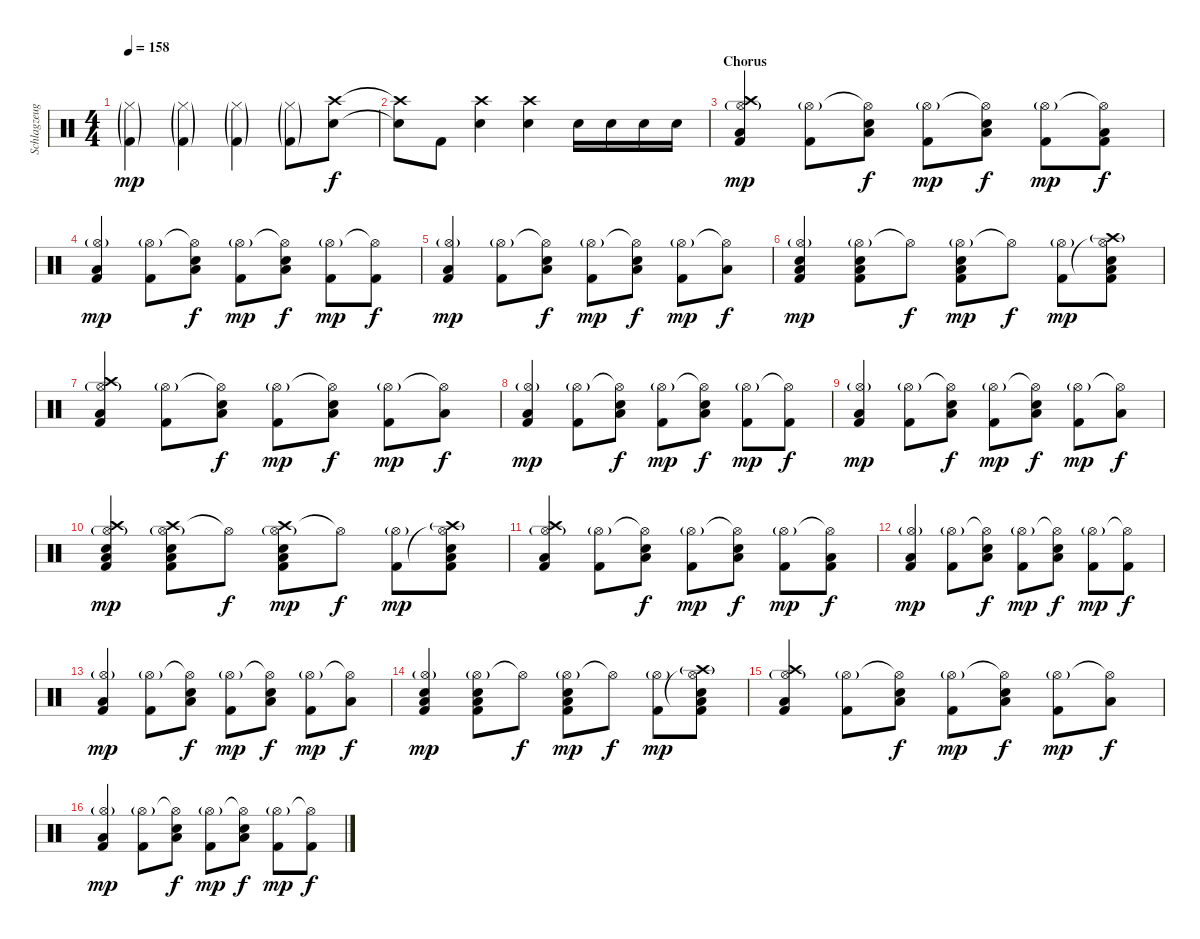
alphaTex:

\track ("Schlagzeug" "Schlagzeug") {instrument percussion}
\staff {score}
\articulation defaults
\ts (4 4)
\tempo 158
\clef neutral
\ks c
("Hi-Hat (closed)"{g} "Kick (hit) 2"{g}).4{dy mp} ("Hi-Hat (closed)"{g} "Kick (hit) 2"{g}).4 ("Hi-Hat (closed)"{g} "Kick (hit) 2"{g}).4 ("Hi-Hat (closed)"{g} "Kick (hit) 2"{g}).8 ("Crash high (hit)" "Snare (hit) 2").8{dy f} |
("Crash high (hit)"{t} "Snare (hit) 2"{t}).8 "Kick (hit) 2".8 ("Crash high (hit)" "Snare (hit) 2").4 ("Crash high (hit)" "Snare (hit) 2").4 "Snare (hit) 2".16 "Snare (hit) 2".16 "Snare (hit) 2".16 "Snare (hit) 2".16 |
\section ("" "Chorus")
("Crash high (hit)" "Hi-Hat (open)"{g} "Low Floor Tom (hit)" "Kick (hit) 2").4{dy mp} ("Hi-Hat (open)"{g} "Kick (hit) 2").8 ("Hi-Hat (open)"{t} "Low Floor Tom (hit)" "Electric Snare (hit)").8{dy f} ("Hi-Hat (open)"{g} "Kick (hit) 2").8{dy mp} ("Hi-Hat (open)"{t} "Low Floor Tom (hit)" "Electric Snare (hit)").8{dy f} ("Hi-Hat (open)"{g} "Kick (hit) 2").8{dy mp} ("Hi-Hat (open)"{t} "Low Floor Tom (hit)" "Kick (hit) 2").8{dy f} |
("Hi-Hat (open)"{g} "Low Floor Tom (hit)" "Kick (hit) 2").4{dy mp} ("Hi-Hat (open)"{g} "Kick (hit) 2").8 ("Hi-Hat (open)"{t} "Low Floor Tom (hit)" "Electric Snare (hit)").8{dy f} ("Hi-Hat (open)"{g} "Kick (hit) 2").8{dy mp} ("Hi-Hat (open)"{t} "Low Floor Tom (hit)" "Electric Snare (hit)").8{dy f} ("Hi-Hat (open)"{g} "Kick (hit) 2").8{dy mp} ("Hi-Hat (open)"{t} "Kick (hit) 2").8{dy f} |
("Hi-Hat (open)"{g} "Low Floor Tom (hit)" "Kick (hit) 2").4{dy mp} ("Hi-Hat (open)"{g} "Kick (hit) 2").8 ("Hi-Hat (open)"{t} "Low Floor Tom (hit)" "Electric Snare (hit)").8{dy f} ("Hi-Hat (open)"{g} "Kick (hit) 2").8{dy mp} ("Hi-Hat (open)"{t} "Low Floor Tom (hit)" "Electric Snare (hit)").8{dy f} ("Hi-Hat (open)"{g} "Kick (hit) 2").8{dy mp} ("Hi-Hat (open)"{t} "Low Floor Tom (hit)").8{dy f} |
("Hi-Hat (open)"{g} "Low Floor Tom (hit)" "Electric Snare (hit)" "Kick (hit) 2").4{dy mp} ("Hi-Hat (open)"{g} "Low Floor Tom (hit)" "Electric Snare (hit)" "Kick (hit) 2").8 "Hi-Hat (open)"{t}.8{dy f} ("Hi-Hat (open)"{g} "Low Floor Tom (hit)" "Electric Snare (hit)" "Kick (hit) 2").8{dy mp} "Hi-Hat (open)"{t}.8{dy f} ("Hi-Hat (open)"{g} "Kick (hit) 2").8{dy mp} ("Crash high (hit)"{g} "Hi-Hat (open)"{t} "Low Floor Tom (hit)" "Electric Snare (hit)" "Kick (hit) 2").8 |
("Crash high (hit)" "Hi-Hat (open)"{g} "Low Floor Tom (hit)" "Kick (hit) 2").4 ("Hi-Hat (open)"{g} "Kick (hit) 2").8 ("Hi-Hat (open)"{t} "Low Floor Tom (hit)" "Electric Snare (hit)").8{dy f} ("Hi-Hat (open)"{g} "Kick (hit) 2").8{dy mp} ("Hi-Hat (open)"{t} "Low Floor Tom (hit)" "Electric Snare (hit)").8{dy f} ("Hi-Hat (open)"{g} "Kick (hit) 2").8{dy mp} ("Hi-Hat (open)"{t} "Low Floor Tom (hit)").8{dy f} |
("Hi-Hat (open)"{g} "Low Floor Tom (hit)" "Kick (hit) 2").4{dy mp} ("Hi-Hat (open)"{g} "Kick (hit) 2").8 ("Hi-Hat (open)"{t} "Low Floor Tom (hit)" "Electric Snare (hit)").8{dy f} ("Hi-Hat (open)"{g} "Kick (hit) 2").8{dy mp} ("Hi-Hat (open)"{t} "Low Floor Tom (hit)" "Electric Snare (hit)").8{dy f} ("Hi-Hat (open)"{g} "Kick (hit) 2").8{dy mp} ("Hi-Hat (open)"{t} "Kick (hit) 2").8{dy f} |
("Hi-Hat (open)"{g} "Low Floor Tom (hit)" "Kick (hit) 2").4{dy mp} ("Hi-Hat (open)"{g} "Kick (hit) 2").8 ("Hi-Hat (open)"{t} "Low Floor Tom (hit)" "Electric Snare (hit)").8{dy f} ("Hi-Hat (open)"{g} "Kick (hit) 2").8{dy mp} ("Hi-Hat (open)"{t} "Low Floor Tom (hit)" "Electric Snare (hit)").8{dy f} ("Hi-Hat (open)"{g} "Kick (hit) 2").8{dy mp} ("Hi-Hat (open)"{t} "Low Floor Tom (hit)").8{dy f} |
("Crash high (hit)" "Hi-Hat (open)"{g} "Low Floor Tom (hit)" "Electric Snare (hit)" "Kick (hit) 2").4{dy mp} ("Crash high (hit)" "Hi-Hat (open)"{g} "Low Floor Tom (hit)" "Electric Snare (hit)" "Kick (hit) 2").8 "Hi-Hat (open)"{t}.8{dy f} ("Crash high (hit)" "Hi-Hat (open)"{g} "Low Floor Tom (hit)" "Electric Snare (hit)" "Kick (hit) 2").8{dy mp} "Hi-Hat (open)"{t}.8{dy f} ("Hi-Hat (open)"{g} "Kick (hit) 2").8{dy mp} ("Crash high (hit)"{g} "Hi-Hat (open)"{t} "Low Floor Tom (hit)" "Electric Snare (hit)" "Kick (hit) 2").8 |
("Crash high (hit)" "Hi-Hat (open)"{g} "Low Floor Tom (hit)" "Kick (hit) 2").4 ("Hi-Hat (open)"{g} "Kick (hit) 2").8 ("Hi-Hat (open)"{t} "Low Floor Tom (hit)" "Electric Snare (hit)").8{dy f} ("Hi-Hat (open)"{g} "Kick (hit) 2").8{dy mp} ("Hi-Hat (open)"{t} "Low Floor Tom (hit)" "Electric Snare (hit)").8{dy f} ("Hi-Hat (open)"{g} "Kick (hit) 2").8{dy mp} ("Hi-Hat (open)"{t} "Low Floor Tom (hit)" "Kick (hit) 2").8{dy f} |
("Hi-Hat (open)"{g} "Low Floor Tom (hit)" "Kick (hit) 2").4{dy mp} ("Hi-Hat (open)"{g} "Kick (hit) 2").8 ("Hi-Hat (open)"{t} "Low Floor Tom (hit)" "Electric Snare (hit)").8{dy f} ("Hi-Hat (open)"{g} "Kick (hit) 2").8{dy mp} ("Hi-Hat (open)"{t} "Low Floor Tom (hit)" "Electric Snare (hit)").8{dy f} ("Hi-Hat (open)"{g} "Kick (hit) 2").8{dy mp} ("Hi-Hat (open)"{t} "Kick (hit) 2").8{dy f} |
("Hi-Hat (open)"{g} "Low Floor Tom (hit)" "Kick (hit) 2").4{dy mp} ("Hi-Hat (open)"{g} "Kick (hit) 2").8 ("Hi-Hat (open)"{t} "Low Floor Tom (hit)" "Electric Snare (hit)").8{dy f} ("Hi-Hat (open)"{g} "Kick (hit) 2").8{dy mp} ("Hi-Hat (open)"{t} "Low Floor Tom (hit)" "Electric Snare (hit)").8{dy f} ("Hi-Hat (open)"{g} "Kick (hit) 2").8{dy mp} ("Hi-Hat (open)"{t} "Low Floor Tom (hit)").8{dy f} |
("Hi-Hat (open)"{g} "Low Floor Tom (hit)" "Electric Snare (hit)" "Kick (hit) 2").4{dy mp} ("Hi-Hat (open)"{g} "Low Floor Tom (hit)" "Electric Snare (hit)" "Kick (hit) 2").8 "Hi-Hat (open)"{t}.8{dy f} ("Hi-Hat (open)"{g} "Low Floor Tom (hit)" "Electric Snare (hit)" "Kick (hit) 2").8{dy mp} "Hi-Hat (open)"{t}.8{dy f} ("Hi-Hat (open)"{g} "Kick (hit) 2").8{dy mp} ("Crash high (hit)"{g} "Hi-Hat (open)"{t} "Low Floor Tom (hit)" "Electric Snare (hit)" "Kick (hit) 2").8 |
("Crash high (hit)" "Hi-Hat (open)"{g} "Low Floor Tom (hit)" "Kick (hit) 2").4 ("Hi-Hat (open)"{g} "Kick (hit) 2").8 ("Hi-Hat (open)"{t} "Low Floor Tom (hit)" "Electric Snare (hit)").8{dy f} ("Hi-Hat (open)"{g} "Kick (hit) 2").8{dy mp} ("Hi-Hat (open)"{t} "Low Floor Tom (hit)" "Electric Snare (hit)").8{dy f} ("Hi-Hat (open)"{g} "Kick (hit) 2").8{dy mp} ("Hi-Hat (open)"{t} "Low Floor Tom (hit)").8{dy f} |
("Hi-Hat (open)"{g} "Low Floor Tom (hit)" "Kick (hit) 2").4{dy mp} ("Hi-Hat (open)"{g} "Kick (hit) 2").8 ("Hi-Hat (open)"{t} "Low Floor Tom (hit)" "Electric Snare (hit)").8{dy f} ("Hi-Hat (open)"{g} "Kick (hit) 2").8{dy mp} ("Hi-Hat (open)"{t} "Low Floor Tom (hit)" "Electric Snare (hit)").8{dy f} ("Hi-Hat (open)"{g} "Kick (hit) 2").8{dy mp} ("Hi-Hat (open)"{t} "Kick (hit) 2").8{dy f}
